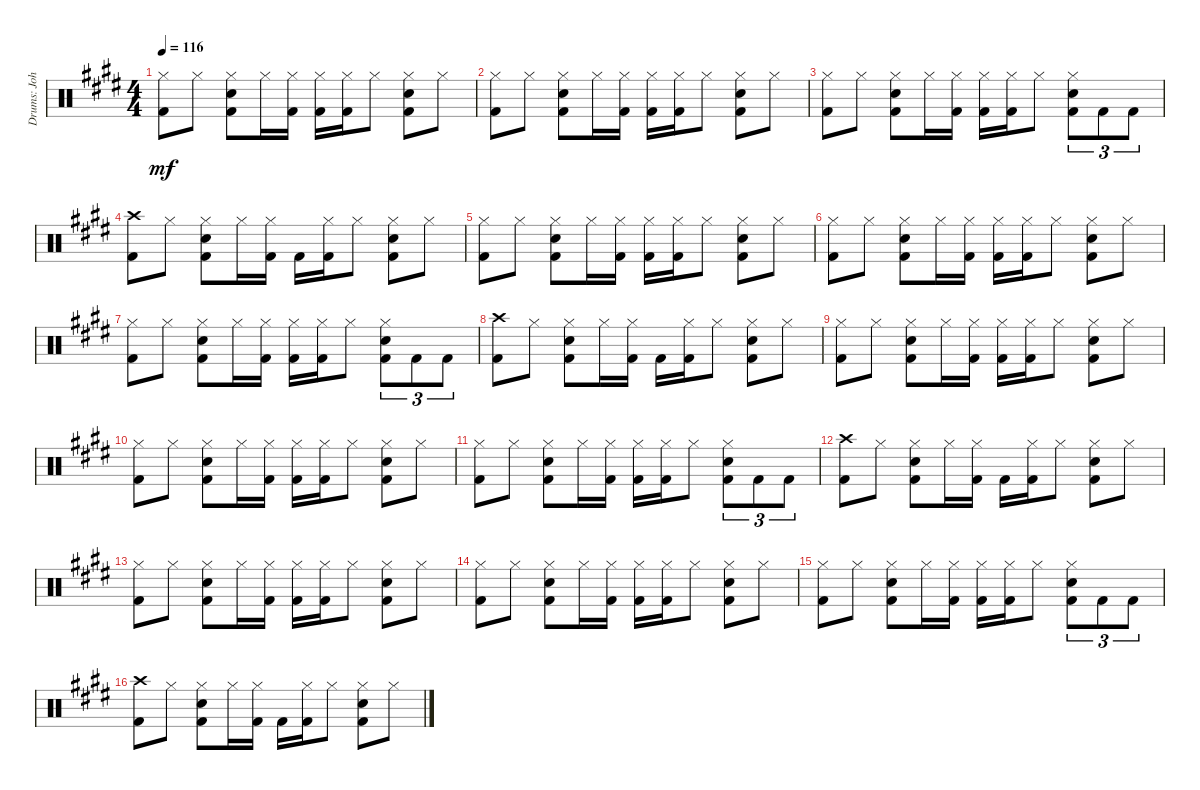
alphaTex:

\track ("Drums: John" "Drums: Joh") {instrument percussion}
\staff {score}
\articulation defaults
\ts (4 4)
\tempo 116
\clef neutral
\ks e
("Hi-Hat (closed)" "Kick (hit) 2").8{dy mf} "Hi-Hat (closed)".8 ("Hi-Hat (closed)" "Electric Snare (hit)" "Kick (hit) 2").8 "Hi-Hat (closed)".16 ("Hi-Hat (closed)" "Kick (hit) 2").16 ("Hi-Hat (closed)" "Kick (hit) 2").16 ("Hi-Hat (closed)" "Kick (hit) 2").16 "Hi-Hat (closed)".8 ("Hi-Hat (closed)" "Electric Snare (hit)" "Kick (hit) 2").8 "Hi-Hat (closed)".8 |
("Hi-Hat (closed)" "Kick (hit) 2").8 "Hi-Hat (closed)".8 ("Hi-Hat (closed)" "Electric Snare (hit)" "Kick (hit) 2").8 "Hi-Hat (closed)".16 ("Hi-Hat (closed)" "Kick (hit) 2").16 ("Hi-Hat (closed)" "Kick (hit) 2").16 ("Hi-Hat (closed)" "Kick (hit) 2").16 "Hi-Hat (closed)".8 ("Hi-Hat (closed)" "Electric Snare (hit)" "Kick (hit) 2").8 "Hi-Hat (closed)".8 |
("Hi-Hat (closed)" "Kick (hit) 2").8 "Hi-Hat (closed)".8 ("Hi-Hat (closed)" "Electric Snare (hit)" "Kick (hit) 2").8 "Hi-Hat (closed)".16 ("Hi-Hat (closed)" "Kick (hit) 2").16 ("Hi-Hat (closed)" "Kick (hit) 2").16 ("Hi-Hat (closed)" "Kick (hit) 2").16 "Hi-Hat (closed)".8 ("Hi-Hat (closed)" "Electric Snare (hit)" "Kick (hit) 2").8{tu (3 2)} "Kick (hit) 2".8{tu (3 2)} "Kick (hit) 2".8{tu (3 2)} |
("Crash high (hit)" "Kick (hit) 2").8 "Hi-Hat (closed)".8 ("Hi-Hat (closed)" "Electric Snare (hit)" "Kick (hit) 2").8 "Hi-Hat (closed)".16 ("Hi-Hat (closed)" "Kick (hit) 2").16 "Kick (hit) 2".16 ("Hi-Hat (closed)" "Kick (hit) 2").16 "Hi-Hat (closed)".8 ("Hi-Hat (closed)" "Electric Snare (hit)" "Kick (hit) 2").8 "Hi-Hat (closed)".8 |
("Hi-Hat (closed)" "Kick (hit) 2").8 "Hi-Hat (closed)".8 ("Hi-Hat (closed)" "Electric Snare (hit)" "Kick (hit) 2").8 "Hi-Hat (closed)".16 ("Hi-Hat (closed)" "Kick (hit) 2").16 ("Hi-Hat (closed)" "Kick (hit) 2").16 ("Hi-Hat (closed)" "Kick (hit) 2").16 "Hi-Hat (closed)".8 ("Hi-Hat (closed)" "Electric Snare (hit)" "Kick (hit) 2").8 "Hi-Hat (closed)".8 |
("Hi-Hat (closed)" "Kick (hit) 2").8 "Hi-Hat (closed)".8 ("Hi-Hat (closed)" "Electric Snare (hit)" "Kick (hit) 2").8 "Hi-Hat (closed)".16 ("Hi-Hat (closed)" "Kick (hit) 2").16 ("Hi-Hat (closed)" "Kick (hit) 2").16 ("Hi-Hat (closed)" "Kick (hit) 2").16 "Hi-Hat (closed)".8 ("Hi-Hat (closed)" "Electric Snare (hit)" "Kick (hit) 2").8 "Hi-Hat (closed)".8 |
("Hi-Hat (closed)" "Kick (hit) 2").8 "Hi-Hat (closed)".8 ("Hi-Hat (closed)" "Electric Snare (hit)" "Kick (hit) 2").8 "Hi-Hat (closed)".16 ("Hi-Hat (closed)" "Kick (hit) 2").16 ("Hi-Hat (closed)" "Kick (hit) 2").16 ("Hi-Hat (closed)" "Kick (hit) 2").16 "Hi-Hat (closed)".8 ("Hi-Hat (closed)" "Electric Snare (hit)" "Kick (hit) 2").8{tu (3 2)} "Kick (hit) 2".8{tu (3 2)} "Kick (hit) 2".8{tu (3 2)} |
("Crash high (hit)" "Kick (hit) 2").8 "Hi-Hat (closed)".8 ("Hi-Hat (closed)" "Electric Snare (hit)" "Kick (hit) 2").8 "Hi-Hat (closed)".16 ("Hi-Hat (closed)" "Kick (hit) 2").16 "Kick (hit) 2".16 ("Hi-Hat (closed)" "Kick (hit) 2").16 "Hi-Hat (closed)".8 ("Hi-Hat (closed)" "Electric Snare (hit)" "Kick (hit) 2").8 "Hi-Hat (closed)".8 |
("Hi-Hat (closed)" "Kick (hit) 2").8 "Hi-Hat (closed)".8 ("Hi-Hat (closed)" "Electric Snare (hit)" "Kick (hit) 2").8 "Hi-Hat (closed)".16 ("Hi-Hat (closed)" "Kick (hit) 2").16 ("Hi-Hat (closed)" "Kick (hit) 2").16 ("Hi-Hat (closed)" "Kick (hit) 2").16 "Hi-Hat (closed)".8 ("Hi-Hat (closed)" "Electric Snare (hit)" "Kick (hit) 2").8 "Hi-Hat (closed)".8 |
("Hi-Hat (closed)" "Kick (hit) 2").8 "Hi-Hat (closed)".8 ("Hi-Hat (closed)" "Electric Snare (hit)" "Kick (hit) 2").8 "Hi-Hat (closed)".16 ("Hi-Hat (closed)" "Kick (hit) 2").16 ("Hi-Hat (closed)" "Kick (hit) 2").16 ("Hi-Hat (closed)" "Kick (hit) 2").16 "Hi-Hat (closed)".8 ("Hi-Hat (closed)" "Electric Snare (hit)" "Kick (hit) 2").8 "Hi-Hat (closed)".8 |
("Hi-Hat (closed)" "Kick (hit) 2").8 "Hi-Hat (closed)".8 ("Hi-Hat (closed)" "Electric Snare (hit)" "Kick (hit) 2").8 "Hi-Hat (closed)".16 ("Hi-Hat (closed)" "Kick (hit) 2").16 ("Hi-Hat (closed)" "Kick (hit) 2").16 ("Hi-Hat (closed)" "Kick (hit) 2").16 "Hi-Hat (closed)".8 ("Hi-Hat (closed)" "Electric Snare (hit)" "Kick (hit) 2").8{tu (3 2)} "Kick (hit) 2".8{tu (3 2)} "Kick (hit) 2".8{tu (3 2)} |
("Crash high (hit)" "Kick (hit) 2").8 "Hi-Hat (closed)".8 ("Hi-Hat (closed)" "Electric Snare (hit)" "Kick (hit) 2").8 "Hi-Hat (closed)".16 ("Hi-Hat (closed)" "Kick (hit) 2").16 "Kick (hit) 2".16 ("Hi-Hat (closed)" "Kick (hit) 2").16 "Hi-Hat (closed)".8 ("Hi-Hat (closed)" "Electric Snare (hit)" "Kick (hit) 2").8 "Hi-Hat (closed)".8 |
("Hi-Hat (closed)" "Kick (hit) 2").8 "Hi-Hat (closed)".8 ("Hi-Hat (closed)" "Electric Snare (hit)" "Kick (hit) 2").8 "Hi-Hat (closed)".16 ("Hi-Hat (closed)" "Kick (hit) 2").16 ("Hi-Hat (closed)" "Kick (hit) 2").16 ("Hi-Hat (closed)" "Kick (hit) 2").16 "Hi-Hat (closed)".8 ("Hi-Hat (closed)" "Electric Snare (hit)" "Kick (hit) 2").8 "Hi-Hat (closed)".8 |
("Hi-Hat (closed)" "Kick (hit) 2").8 "Hi-Hat (closed)".8 ("Hi-Hat (closed)" "Electric Snare (hit)" "Kick (hit) 2").8 "Hi-Hat (closed)".16 ("Hi-Hat (closed)" "Kick (hit) 2").16 ("Hi-Hat (closed)" "Kick (hit) 2").16 ("Hi-Hat (closed)" "Kick (hit) 2").16 "Hi-Hat (closed)".8 ("Hi-Hat (closed)" "Electric Snare (hit)" "Kick (hit) 2").8 "Hi-Hat (closed)".8 |
("Hi-Hat (closed)" "Kick (hit) 2").8 "Hi-Hat (closed)".8 ("Hi-Hat (closed)" "Electric Snare (hit)" "Kick (hit) 2").8 "Hi-Hat (closed)".16 ("Hi-Hat (closed)" "Kick (hit) 2").16 ("Hi-Hat (closed)" "Kick (hit) 2").16 ("Hi-Hat (closed)" "Kick (hit) 2").16 "Hi-Hat (closed)".8 ("Hi-Hat (closed)" "Electric Snare (hit)" "Kick (hit) 2").8{tu (3 2)} "Kick (hit) 2".8{tu (3 2)} "Kick (hit) 2".8{tu (3 2)} |
("Crash high (hit)" "Kick (hit) 2").8 "Hi-Hat (closed)".8 ("Hi-Hat (closed)" "Electric Snare (hit)" "Kick (hit) 2").8 "Hi-Hat (closed)".16 ("Hi-Hat (closed)" "Kick (hit) 2").16 "Kick (hit) 2".16 ("Hi-Hat (closed)" "Kick (hit) 2").16 "Hi-Hat (closed)".8 ("Hi-Hat (closed)" "Electric Snare (hit)" "Kick (hit) 2").8 "Hi-Hat (closed)".8
